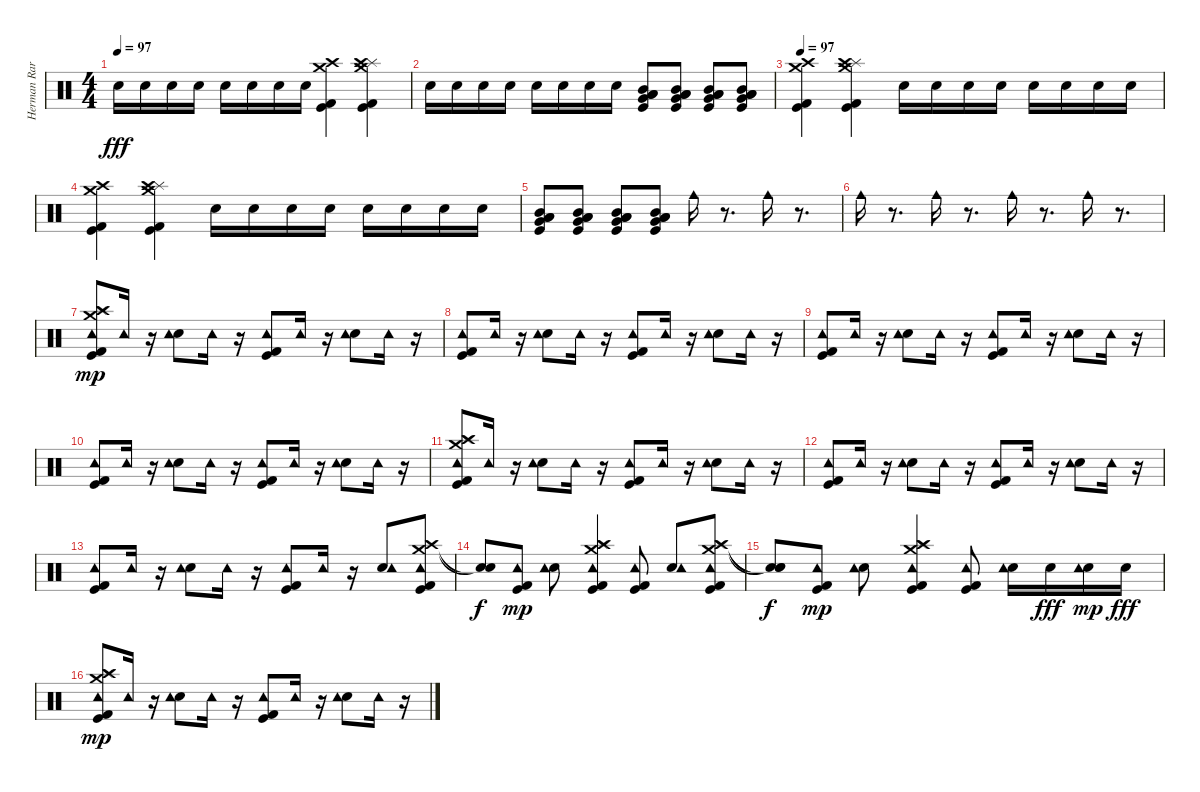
\track ("Herman Rarebell" "Herman Rar") {instrument percussion}
\staff {score}
\articulation defaults
\ts (4 4)
\tempo 97
\clef neutral
\ks c "Snare (hit) 2".16{dy fff} "Snare (hit) 2".16 "Snare (hit) 2".16 "Snare (hit) 2".16 "Snare (hit) 2".16 "Snare (hit) 2".16 "Snare (hit) 2".16 "Snare (hit) 2".16
("Kick (hit) 2" "Kick (hit)" "Crash medium (hit)" "Crash high (hit)").4 ("Kick (hit)" "Kick (hit) 2" "Crash medium (hit)" "Splash (hit)" "Crash high (hit)").4 |
"Snare (hit) 2".16 "Snare (hit) 2".16 "Snare (hit) 2".16 "Snare (hit) 2".16 "Snare (hit) 2".16 "Snare (hit) 2".16 "Snare (hit) 2".16 "Snare (hit) 2".16 ("Mid Tom (hit)" "Low Tom (hit)" "Very Low Tom (hit)" "Low Floor Tom (hit)" "Kick (hit)").8 ("Mid Tom (hit)" "Low Tom (hit)" "Very Low Tom (hit)" "Low Floor Tom (hit)" "Kick (hit)").8 ("Mid Tom (hit)" "Low Tom (hit)" "Very Low Tom (hit)" "Low Floor Tom (hit)" "Kick (hit)").8 ("Mid Tom (hit)" "Low Tom (hit)" "Very Low Tom (hit)" "Low Floor Tom (hit)" "Kick (hit)").8 |
\tempo 97
("Crash medium (hit)" "Crash high (hit)" "Kick (hit) 2" "Kick (hit)").4 ("Crash medium (hit)" "Splash (hit)" "Crash high (hit)" "Kick (hit)" "Kick (hit) 2").4 "Snare (hit) 2".16 "Snare (hit) 2".16 "Snare (hit) 2".16 "Snare (hit) 2".16 "Snare (hit) 2".16 "Snare (hit) 2".16 "Snare (hit) 2".16 "Snare (hit) 2".16 |
("Kick (hit) 2" "Kick (hit)" "Crash medium (hit)" "Crash high (hit)").4 ("Kick (hit)" "Kick (hit) 2" "Crash medium (hit)" "Splash (hit)" "Crash high (hit)").4 "Snare (hit) 2".16 "Snare (hit) 2".16 "Snare (hit) 2".16 "Snare (hit) 2".16 "Snare (hit) 2".16 "Snare (hit) 2".16 "Snare (hit) 2".16 "Snare (hit) 2".16 |
("Mid Tom (hit)" "Low Tom (hit)" "Very Low Tom (hit)" "Low Floor Tom (hit)" "Kick (hit)").8 ("Mid Tom (hit)" "Low Tom (hit)" "Very Low Tom (hit)" "Low Floor Tom (hit)" "Kick (hit)").8 ("Mid Tom (hit)" "Low Tom (hit)" "Very Low Tom (hit)" "Low Floor Tom (hit)" "Kick (hit)").8 ("Mid Tom (hit)" "Low Tom (hit)" "Very Low Tom (hit)" "Low Floor Tom (hit)" "Kick (hit)").8 "Cowbell medium (hit)".16 r.8{d} "Cowbell medium (hit)".16 r.8{d} |
"Cowbell medium (hit)".16 r.8{d} "Cowbell medium (hit)".16 r.8{d} "Cowbell medium (hit)".16 r.8{d} "Cowbell medium (hit)".16 r.8{d} |
("Kick (hit)" "Kick (hit) 2" "Crash medium (hit)" "Splash (hit)" "Crash high (hit)" "Tambourine (hit)").8{dy mp} "Tambourine (hit)".16 r.16 ("Snare (hit) 2" "Tambourine (hit)").8 "Tambourine (hit)".16 r.16 ("Kick (hit) 2" "Kick (hit)" "Tambourine (hit)").8 "Tambourine (hit)".16 r.16 ("Snare (hit) 2" "Tambourine (hit)").8 "Tambourine (hit)".16 r.16 |
("Kick (hit) 2" "Kick (hit)" "Tambourine (hit)").8 "Tambourine (hit)".16 r.16 ("Snare (hit) 2" "Tambourine (hit)").8 "Tambourine (hit)".16 r.16 ("Kick (hit) 2" "Kick (hit)" "Tambourine (hit)").8 "Tambourine (hit)".16 r.16 ("Snare (hit) 2" "Tambourine (hit)").8 "Tambourine (hit)".16 r.16 |
("Kick (hit) 2" "Kick (hit)" "Tambourine (hit)").8 "Tambourine (hit)".16 r.16 ("Snare (hit) 2" "Tambourine (hit)").8 "Tambourine (hit)".16 r.16 ("Kick (hit) 2" "Kick (hit)" "Tambourine (hit)").8 "Tambourine (hit)".16 r.16 ("Snare (hit) 2" "Tambourine (hit)").8 "Tambourine (hit)".16 r.16 |
("Kick (hit) 2" "Kick (hit)" "Tambourine (hit)").8 "Tambourine (hit)".16 r.16 ("Snare (hit) 2" "Tambourine (hit)").8 "Tambourine (hit)".16 r.16 ("Kick (hit) 2" "Kick (hit)" "Tambourine (hit)").8 "Tambourine (hit)".16 r.16 ("Snare (hit) 2" "Tambourine (hit)").8 "Tambourine (hit)".16 r.16 |
("Crash high (hit)" "Splash (hit)" "Crash medium (hit)" "Kick (hit) 2" "Kick (hit)" "Tambourine (hit)").8 "Tambourine (hit)".16 r.16 ("Snare (hit) 2" "Tambourine (hit)").8 "Tambourine (hit)".16 r.16 ("Kick (hit) 2" "Kick (hit)" "Tambourine (hit)").8 "Tambourine (hit)".16 r.16 ("Snare (hit) 2" "Tambourine (hit)").8 "Tambourine (hit)".16 r.16 |
("Kick (hit)" "Kick (hit) 2" "Tambourine (hit)").8 "Tambourine (hit)".16 r.16 ("Snare (hit) 2" "Tambourine (hit)").8 "Tambourine (hit)".16 r.16 ("Kick (hit) 2" "Kick (hit)" "Tambourine (hit)").8 "Tambourine (hit)".16 r.16 ("Snare (hit) 2" "Tambourine (hit)").8 "Tambourine (hit)".16 r.16 |
("Kick (hit)" "Kick (hit) 2" "Tambourine (hit)").8 "Tambourine (hit)".16 r.16 ("Snare (hit) 2" "Tambourine (hit)").8 "Tambourine (hit)".16 r.16 ("Kick (hit) 2" "Kick (hit)" "Tambourine (hit)").8 "Tambourine (hit)".16 r.16 ("Snare (hit) 2" "Tambourine (hit)").8 ("Crash high (hit)" "Crash medium (hit)" "Kick (hit)" "Kick (hit) 2" "Tambourine (hit)").8 |
("Snare (hit)"{t} "Snare (hit)"{t}).8{dy f} ("Kick (hit) 2" "Kick (hit)" "Tambourine (hit)").8{dy mp} ("Snare (hit) 2" "Tambourine (hit)").8 ("Crash medium (hit)" "Splash (hit)" "Crash high (hit)" "Kick (hit) 2" "Kick (hit)" "Tambourine (hit)").4 ("Kick (hit) 2" "Kick (hit)" "Tambourine (hit)").8 ("Snare (hit) 2" "Tambourine (hit)").8 ("Crash medium (hit)" "Splash (hit)" "Crash high (hit)" "Kick (hit) 2" "Kick (hit)" "Tambourine (hit)").8 |
("Snare (hit)"{t} "Snare (hit)"{t} "Snare (hit)"{t}).8{dy f} ("Kick (hit) 2" "Kick (hit)" "Tambourine (hit)").8{dy mp} ("Snare (hit) 2" "Tambourine (hit)").8 ("Crash high (hit)" "Splash (hit)" "Crash medium (hit)" "Kick (hit) 2" "Kick (hit)" "Tambourine (hit)").4 ("Kick (hit) 2" "Kick (hit)" "Tambourine (hit)").8 ("Snare (hit) 2" "Tambourine (hit)").16 "Snare (hit) 2".16{dy fff} ("Snare (hit) 2" "Tambourine (hit)").16{dy mp} "Snare (hit) 2".16{dy fff} |
("Crash high (hit)" "Splash (hit)" "Crash medium (hit)" "Kick (hit) 2" "Kick (hit)" "Tambourine (hit)").8{dy mp} "Tambourine (hit)".16 r.16 ("Snare (hit) 2" "Tambourine (hit)").8 "Tambourine (hit)".16 r.16 ("Kick (hit) 2" "Kick (hit)" "Tambourine (hit)").8 "Tambourine (hit)".16 r.16 ("Snare (hit) 2" "Tambourine (hit)").8 "Tambourine (hit)".16 r.16
